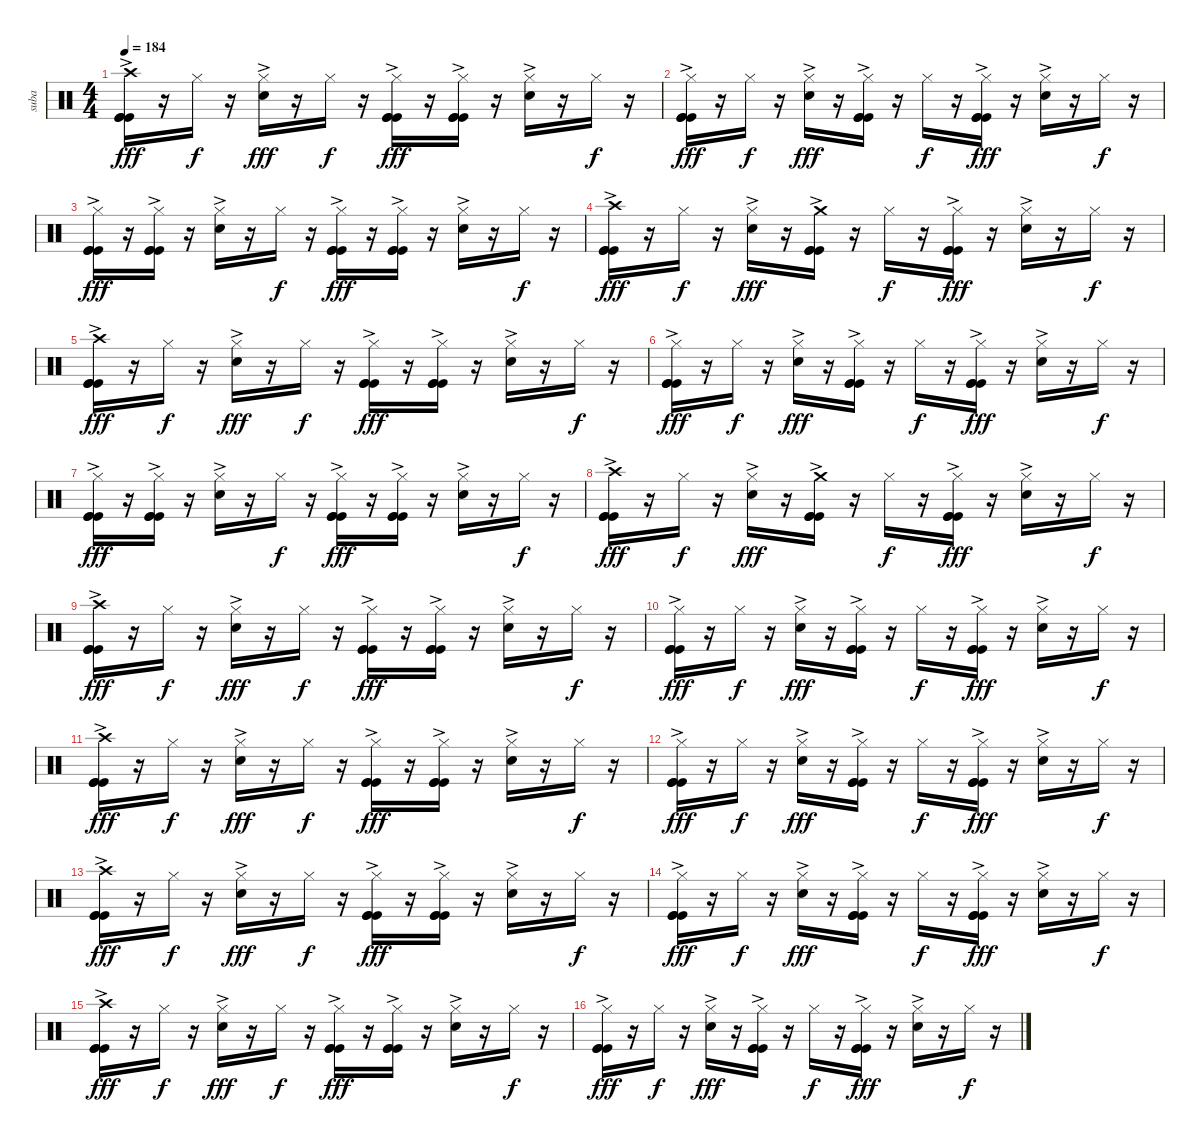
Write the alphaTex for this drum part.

\track ("suba" "suba") {instrument percussion}
\staff {score}
\articulation defaults
\ts (4 4)
\tempo 184
\clef neutral
\ks c
("Crash high (hit)"{ac} "Kick (hit)"{ac} "Kick (hit)"{ac} "Kick (hit)"{ac}).16{dy fff} r.16 "Hi-Hat (closed)".16{dy f} r.16 ("Hi-Hat (closed)" "Snare (hit) 2"{ac}).16{dy fff} r.16 "Hi-Hat (closed)".16{dy f} r.16 ("Hi-Hat (closed)" "Kick (hit)"{ac} "Kick (hit)"{ac} "Kick (hit)"{ac}).16{dy fff} r.16 ("Hi-Hat (closed)" "Kick (hit)"{ac} "Kick (hit)"{ac} "Kick (hit)"{ac}).16 r.16 ("Hi-Hat (closed)" "Snare (hit) 2"{ac}).16 r.16 "Hi-Hat (closed)".16{dy f} r.16 |
("Hi-Hat (closed)" "Kick (hit)"{ac} "Kick (hit)"{ac} "Kick (hit)"{ac}).16{dy fff} r.16 "Hi-Hat (closed)".16{dy f} r.16 ("Hi-Hat (closed)" "Snare (hit) 2"{ac}).16{dy fff} r.16 ("Hi-Hat (closed)" "Kick (hit)"{ac} "Kick (hit)"{ac} "Kick (hit)"{ac}).16 r.16 "Hi-Hat (closed)".16{dy f} r.16 ("Hi-Hat (closed)" "Kick (hit)"{ac} "Kick (hit)"{ac} "Kick (hit)"{ac}).16{dy fff} r.16 ("Hi-Hat (closed)" "Snare (hit) 2"{ac}).16 r.16 "Hi-Hat (closed)".16{dy f} r.16 |
("Hi-Hat (closed)" "Kick (hit)"{ac} "Kick (hit)"{ac} "Kick (hit)"{ac}).16{dy fff} r.16 ("Hi-Hat (closed)" "Kick (hit)"{ac} "Kick (hit)"{ac} "Kick (hit)"{ac}).16 r.16 ("Hi-Hat (closed)" "Snare (hit) 2"{ac}).16 r.16 "Hi-Hat (closed)".16{dy f} r.16 ("Hi-Hat (closed)" "Kick (hit)"{ac} "Kick (hit)"{ac} "Kick (hit)"{ac}).16{dy fff} r.16 ("Hi-Hat (closed)" "Kick (hit)"{ac} "Kick (hit)"{ac} "Kick (hit)"{ac}).16 r.16 ("Hi-Hat (closed)" "Snare (hit) 2"{ac}).16 r.16 "Hi-Hat (closed)".16{dy f} r.16 |
("Crash high (hit)" "Kick (hit)"{ac} "Kick (hit)"{ac} "Kick (hit)"{ac}).16{dy fff} r.16 "Hi-Hat (closed)".16{dy f} r.16 ("Hi-Hat (closed)" "Snare (hit) 2"{ac}).16{dy fff} r.16 ("Crash medium (hit)"{ac} "Kick (hit)"{ac} "Kick (hit)"{ac} "Kick (hit)"{ac}).16 r.16 "Hi-Hat (closed)".16{dy f} r.16 ("Hi-Hat (closed)" "Kick (hit)"{ac} "Kick (hit)"{ac} "Kick (hit)"{ac}).16{dy fff} r.16 ("Hi-Hat (closed)" "Snare (hit) 2"{ac}).16 r.16 "Hi-Hat (closed)".16{dy f} r.16 |
("Crash high (hit)"{ac} "Kick (hit)"{ac} "Kick (hit)"{ac} "Kick (hit)"{ac}).16{dy fff} r.16 "Hi-Hat (closed)".16{dy f} r.16 ("Hi-Hat (closed)" "Snare (hit) 2"{ac}).16{dy fff} r.16 "Hi-Hat (closed)".16{dy f} r.16 ("Hi-Hat (closed)" "Kick (hit)"{ac} "Kick (hit)"{ac} "Kick (hit)"{ac}).16{dy fff} r.16 ("Hi-Hat (closed)" "Kick (hit)"{ac} "Kick (hit)"{ac} "Kick (hit)"{ac}).16 r.16 ("Hi-Hat (closed)" "Snare (hit) 2"{ac}).16 r.16 "Hi-Hat (closed)".16{dy f} r.16 |
("Hi-Hat (closed)" "Kick (hit)"{ac} "Kick (hit)"{ac} "Kick (hit)"{ac}).16{dy fff} r.16 "Hi-Hat (closed)".16{dy f} r.16 ("Hi-Hat (closed)" "Snare (hit) 2"{ac}).16{dy fff} r.16 ("Hi-Hat (closed)" "Kick (hit)"{ac} "Kick (hit)"{ac} "Kick (hit)"{ac}).16 r.16 "Hi-Hat (closed)".16{dy f} r.16 ("Hi-Hat (closed)" "Kick (hit)"{ac} "Kick (hit)"{ac} "Kick (hit)"{ac}).16{dy fff} r.16 ("Hi-Hat (closed)" "Snare (hit) 2"{ac}).16 r.16 "Hi-Hat (closed)".16{dy f} r.16 |
("Hi-Hat (closed)" "Kick (hit)"{ac} "Kick (hit)"{ac} "Kick (hit)"{ac}).16{dy fff} r.16 ("Hi-Hat (closed)" "Kick (hit)"{ac} "Kick (hit)"{ac} "Kick (hit)"{ac}).16 r.16 ("Hi-Hat (closed)" "Snare (hit) 2"{ac}).16 r.16 "Hi-Hat (closed)".16{dy f} r.16 ("Hi-Hat (closed)" "Kick (hit)"{ac} "Kick (hit)"{ac} "Kick (hit)"{ac}).16{dy fff} r.16 ("Hi-Hat (closed)" "Kick (hit)"{ac} "Kick (hit)"{ac} "Kick (hit)"{ac}).16 r.16 ("Hi-Hat (closed)" "Snare (hit) 2"{ac}).16 r.16 "Hi-Hat (closed)".16{dy f} r.16 |
("Crash high (hit)" "Kick (hit)"{ac} "Kick (hit)"{ac} "Kick (hit)"{ac}).16{dy fff} r.16 "Hi-Hat (closed)".16{dy f} r.16 ("Hi-Hat (closed)" "Snare (hit) 2"{ac}).16{dy fff} r.16 ("Crash medium (hit)"{ac} "Kick (hit)"{ac} "Kick (hit)"{ac} "Kick (hit)"{ac}).16 r.16 "Hi-Hat (closed)".16{dy f} r.16 ("Hi-Hat (closed)" "Kick (hit)"{ac} "Kick (hit)"{ac} "Kick (hit)"{ac}).16{dy fff} r.16 ("Hi-Hat (closed)" "Snare (hit) 2"{ac}).16 r.16 "Hi-Hat (closed)".16{dy f} r.16 |
("Crash high (hit)"{ac} "Kick (hit)"{ac} "Kick (hit)"{ac} "Kick (hit)"{ac}).16{dy fff} r.16 "Hi-Hat (closed)".16{dy f} r.16 ("Hi-Hat (closed)" "Snare (hit) 2"{ac}).16{dy fff} r.16 "Hi-Hat (closed)".16{dy f} r.16 ("Hi-Hat (closed)" "Kick (hit)"{ac} "Kick (hit)"{ac} "Kick (hit)"{ac}).16{dy fff} r.16 ("Hi-Hat (closed)" "Kick (hit)"{ac} "Kick (hit)"{ac} "Kick (hit)"{ac}).16 r.16 ("Hi-Hat (closed)" "Snare (hit) 2"{ac}).16 r.16 "Hi-Hat (closed)".16{dy f} r.16 |
("Hi-Hat (closed)" "Kick (hit)"{ac} "Kick (hit)"{ac} "Kick (hit)"{ac}).16{dy fff} r.16 "Hi-Hat (closed)".16{dy f} r.16 ("Hi-Hat (closed)" "Snare (hit) 2"{ac}).16{dy fff} r.16 ("Hi-Hat (closed)" "Kick (hit)"{ac} "Kick (hit)"{ac} "Kick (hit)"{ac}).16 r.16 "Hi-Hat (closed)".16{dy f} r.16 ("Hi-Hat (closed)" "Kick (hit)"{ac} "Kick (hit)"{ac} "Kick (hit)"{ac}).16{dy fff} r.16 ("Hi-Hat (closed)" "Snare (hit) 2"{ac}).16 r.16 "Hi-Hat (closed)".16{dy f} r.16 |
("Crash high (hit)"{ac} "Kick (hit)"{ac} "Kick (hit)"{ac} "Kick (hit)"{ac}).16{dy fff} r.16 "Hi-Hat (closed)".16{dy f} r.16 ("Hi-Hat (closed)" "Snare (hit) 2"{ac}).16{dy fff} r.16 "Hi-Hat (closed)".16{dy f} r.16 ("Hi-Hat (closed)" "Kick (hit)"{ac} "Kick (hit)"{ac} "Kick (hit)"{ac}).16{dy fff} r.16 ("Hi-Hat (closed)" "Kick (hit)"{ac} "Kick (hit)"{ac} "Kick (hit)"{ac}).16 r.16 ("Hi-Hat (closed)" "Snare (hit) 2"{ac}).16 r.16 "Hi-Hat (closed)".16{dy f} r.16 |
("Hi-Hat (closed)" "Kick (hit)"{ac} "Kick (hit)"{ac} "Kick (hit)"{ac}).16{dy fff} r.16 "Hi-Hat (closed)".16{dy f} r.16 ("Hi-Hat (closed)" "Snare (hit) 2"{ac}).16{dy fff} r.16 ("Hi-Hat (closed)" "Kick (hit)"{ac} "Kick (hit)"{ac} "Kick (hit)"{ac}).16 r.16 "Hi-Hat (closed)".16{dy f} r.16 ("Hi-Hat (closed)" "Kick (hit)"{ac} "Kick (hit)"{ac} "Kick (hit)"{ac}).16{dy fff} r.16 ("Hi-Hat (closed)" "Snare (hit) 2"{ac}).16 r.16 "Hi-Hat (closed)".16{dy f} r.16 |
("Crash high (hit)"{ac} "Kick (hit)"{ac} "Kick (hit)"{ac} "Kick (hit)"{ac}).16{dy fff} r.16 "Hi-Hat (closed)".16{dy f} r.16 ("Hi-Hat (closed)" "Snare (hit) 2"{ac}).16{dy fff} r.16 "Hi-Hat (closed)".16{dy f} r.16 ("Hi-Hat (closed)" "Kick (hit)"{ac} "Kick (hit)"{ac} "Kick (hit)"{ac}).16{dy fff} r.16 ("Hi-Hat (closed)" "Kick (hit)"{ac} "Kick (hit)"{ac} "Kick (hit)"{ac}).16 r.16 ("Hi-Hat (closed)" "Snare (hit) 2"{ac}).16 r.16 "Hi-Hat (closed)".16{dy f} r.16 |
("Hi-Hat (closed)" "Kick (hit)"{ac} "Kick (hit)"{ac} "Kick (hit)"{ac}).16{dy fff} r.16 "Hi-Hat (closed)".16{dy f} r.16 ("Hi-Hat (closed)" "Snare (hit) 2"{ac}).16{dy fff} r.16 ("Hi-Hat (closed)" "Kick (hit)"{ac} "Kick (hit)"{ac} "Kick (hit)"{ac}).16 r.16 "Hi-Hat (closed)".16{dy f} r.16 ("Hi-Hat (closed)" "Kick (hit)"{ac} "Kick (hit)"{ac} "Kick (hit)"{ac}).16{dy fff} r.16 ("Hi-Hat (closed)" "Snare (hit) 2"{ac}).16 r.16 "Hi-Hat (closed)".16{dy f} r.16 |
("Crash high (hit)"{ac} "Kick (hit)"{ac} "Kick (hit)"{ac} "Kick (hit)"{ac}).16{dy fff} r.16 "Hi-Hat (closed)".16{dy f} r.16 ("Hi-Hat (closed)" "Snare (hit) 2"{ac}).16{dy fff} r.16 "Hi-Hat (closed)".16{dy f} r.16 ("Hi-Hat (closed)" "Kick (hit)"{ac} "Kick (hit)"{ac} "Kick (hit)"{ac}).16{dy fff} r.16 ("Hi-Hat (closed)" "Kick (hit)"{ac} "Kick (hit)"{ac} "Kick (hit)"{ac}).16 r.16 ("Hi-Hat (closed)" "Snare (hit) 2"{ac}).16 r.16 "Hi-Hat (closed)".16{dy f} r.16 |
("Hi-Hat (closed)" "Kick (hit)"{ac} "Kick (hit)"{ac} "Kick (hit)"{ac}).16{dy fff} r.16 "Hi-Hat (closed)".16{dy f} r.16 ("Hi-Hat (closed)" "Snare (hit) 2"{ac}).16{dy fff} r.16 ("Hi-Hat (closed)" "Kick (hit)"{ac} "Kick (hit)"{ac} "Kick (hit)"{ac}).16 r.16 "Hi-Hat (closed)".16{dy f} r.16 ("Hi-Hat (closed)" "Kick (hit)"{ac} "Kick (hit)"{ac} "Kick (hit)"{ac}).16{dy fff} r.16 ("Hi-Hat (closed)" "Snare (hit) 2"{ac}).16 r.16 "Hi-Hat (closed)".16{dy f} r.16
